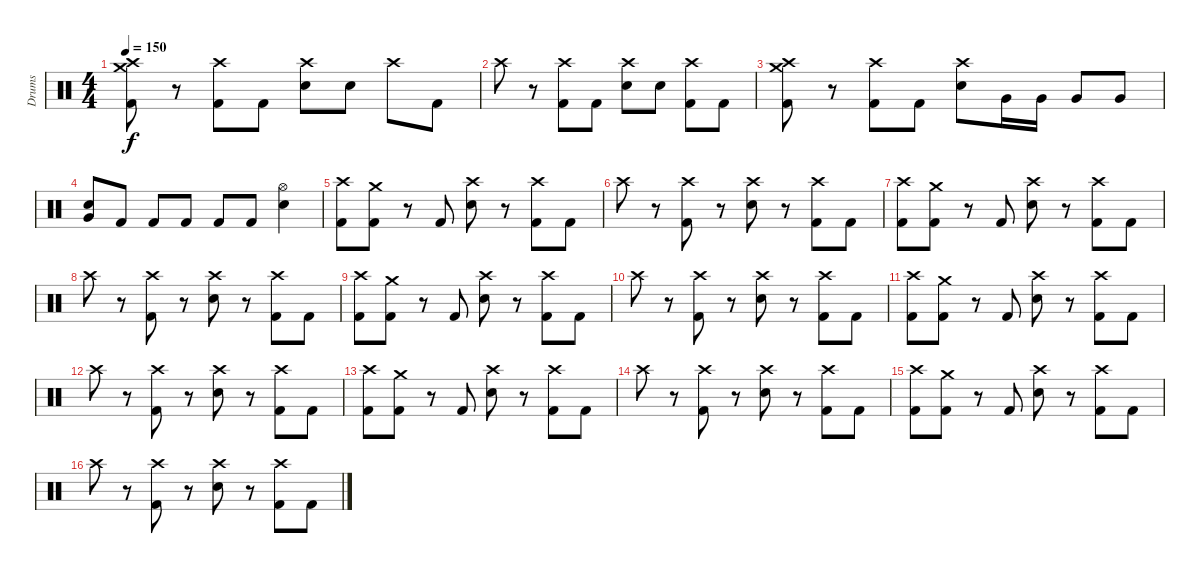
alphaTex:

\track ("Drums" "Drums") {instrument percussion}
\staff {score}
\articulation defaults
\ts (4 4)
\tempo 150
\clef neutral
\ks c
("Crash high (hit)" "Crash medium (hit)" "Kick (hit) 2").8{dy f} r.8 ("Crash high (hit)" "Kick (hit) 2").8 "Kick (hit) 2".8 ("Crash high (hit)" "Electric Snare (hit)").8 "Electric Snare (hit)".8 "Crash high (hit)".8 "Kick (hit) 2".8 |
"Crash high (hit)".8 r.8 ("Crash high (hit)" "Kick (hit) 2").8 "Kick (hit) 2".8 ("Crash high (hit)" "Electric Snare (hit)").8 "Electric Snare (hit)".8 ("Crash high (hit)" "Kick (hit) 2").8 "Kick (hit) 2".8 |
("Crash high (hit)" "Crash medium (hit)" "Kick (hit) 2").8 r.8 ("Crash high (hit)" "Kick (hit) 2").8 "Kick (hit) 2".8 ("Crash high (hit)" "Electric Snare (hit)").8 "Very Low Tom (hit)".16 "Very Low Tom (hit)".16 "Very Low Tom (hit)".8 "Very Low Tom (hit)".8 |
("Very Low Tom (hit)" "Electric Snare (hit)").8 "Kick (hit) 2".8 "Kick (hit) 2".8 "Kick (hit) 2".8 "Kick (hit) 2".8 "Kick (hit) 2".8 ("Hi-Hat (open)" "Electric Snare (hit)").4 |
("Crash high (hit)" "Kick (hit) 2").8 ("Crash medium (hit)" "Kick (hit) 2").8 r.8 "Kick (hit) 2".8 ("Crash high (hit)" "Electric Snare (hit)").8 r.8 ("Crash high (hit)" "Kick (hit) 2").8 "Kick (hit) 2".8 |
"Crash high (hit)".8 r.8 ("Crash high (hit)" "Kick (hit) 2").8 r.8 ("Crash high (hit)" "Electric Snare (hit)").8 r.8 ("Crash high (hit)" "Kick (hit) 2").8 "Kick (hit) 2".8 |
("Crash high (hit)" "Kick (hit) 2").8 ("Crash medium (hit)" "Kick (hit) 2").8 r.8 "Kick (hit) 2".8 ("Crash high (hit)" "Electric Snare (hit)").8 r.8 ("Crash high (hit)" "Kick (hit) 2").8 "Kick (hit) 2".8 |
"Crash high (hit)".8 r.8 ("Crash high (hit)" "Kick (hit) 2").8 r.8 ("Crash high (hit)" "Electric Snare (hit)").8 r.8 ("Crash high (hit)" "Kick (hit) 2").8 "Kick (hit) 2".8 |
("Crash high (hit)" "Kick (hit) 2").8 ("Crash medium (hit)" "Kick (hit) 2").8 r.8 "Kick (hit) 2".8 ("Crash high (hit)" "Electric Snare (hit)").8 r.8 ("Crash high (hit)" "Kick (hit) 2").8 "Kick (hit) 2".8 |
"Crash high (hit)".8 r.8 ("Crash high (hit)" "Kick (hit) 2").8 r.8 ("Crash high (hit)" "Electric Snare (hit)").8 r.8 ("Crash high (hit)" "Kick (hit) 2").8 "Kick (hit) 2".8 |
("Crash high (hit)" "Kick (hit) 2").8 ("Crash medium (hit)" "Kick (hit) 2").8 r.8 "Kick (hit) 2".8 ("Crash high (hit)" "Electric Snare (hit)").8 r.8 ("Crash high (hit)" "Kick (hit) 2").8 "Kick (hit) 2".8 |
"Crash high (hit)".8 r.8 ("Crash high (hit)" "Kick (hit) 2").8 r.8 ("Crash high (hit)" "Electric Snare (hit)").8 r.8 ("Crash high (hit)" "Kick (hit) 2").8 "Kick (hit) 2".8 |
("Crash high (hit)" "Kick (hit) 2").8 ("Crash medium (hit)" "Kick (hit) 2").8 r.8 "Kick (hit) 2".8 ("Crash high (hit)" "Electric Snare (hit)").8 r.8 ("Crash high (hit)" "Kick (hit) 2").8 "Kick (hit) 2".8 |
"Crash high (hit)".8 r.8 ("Crash high (hit)" "Kick (hit) 2").8 r.8 ("Crash high (hit)" "Electric Snare (hit)").8 r.8 ("Crash high (hit)" "Kick (hit) 2").8 "Kick (hit) 2".8 |
("Crash high (hit)" "Kick (hit) 2").8 ("Crash medium (hit)" "Kick (hit) 2").8 r.8 "Kick (hit) 2".8 ("Crash high (hit)" "Electric Snare (hit)").8 r.8 ("Crash high (hit)" "Kick (hit) 2").8 "Kick (hit) 2".8 |
"Crash high (hit)".8 r.8 ("Crash high (hit)" "Kick (hit) 2").8 r.8 ("Crash high (hit)" "Electric Snare (hit)").8 r.8 ("Crash high (hit)" "Kick (hit) 2").8 "Kick (hit) 2".8
